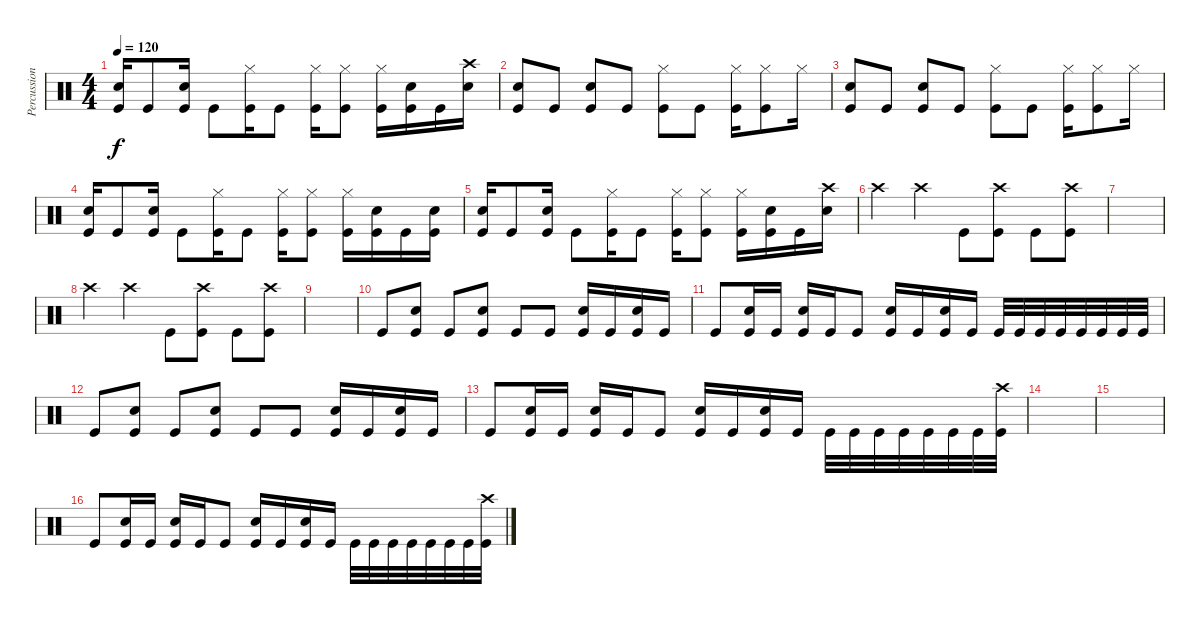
\track ("Percussion" "Percussion") {instrument percussion}
\staff {score}
\articulation defaults
\ts (4 4)
\tempo 120
\clef neutral
\ks c
("Kick (hit)" "Snare (hit) 2").16{dy f} "Kick (hit)".8 ("Kick (hit)" "Snare (hit) 2").16 "Kick (hit)".8 ("Kick (hit)" "Hi-Hat (closed)").16 "Kick (hit)".8 ("Kick (hit)" "Hi-Hat (closed)").16 ("Kick (hit)" "Hi-Hat (closed)").8 ("Kick (hit)" "Hi-Hat (closed)").16 ("Kick (hit)" "Snare (hit) 2").16 "Kick (hit)".16 ("Crash high (hit)" "Snare (hit) 2").16 |
("Kick (hit)" "Snare (hit) 2").8 "Kick (hit)".8 ("Kick (hit)" "Snare (hit) 2").8 "Kick (hit)".8 ("Kick (hit)" "Hi-Hat (closed)").8 "Kick (hit)".8 ("Kick (hit)" "Hi-Hat (closed)").16 ("Kick (hit)" "Hi-Hat (closed)").8 "Hi-Hat (closed)".16 |
("Kick (hit)" "Snare (hit) 2").8 "Kick (hit)".8 ("Kick (hit)" "Snare (hit) 2").8 "Kick (hit)".8 ("Kick (hit)" "Hi-Hat (closed)").8 "Kick (hit)".8 ("Kick (hit)" "Hi-Hat (closed)").16 ("Kick (hit)" "Hi-Hat (closed)").8 "Hi-Hat (closed)".16 |
("Kick (hit)" "Snare (hit) 2").16 "Kick (hit)".8 ("Kick (hit)" "Snare (hit) 2").16 "Kick (hit)".8 ("Kick (hit)" "Hi-Hat (closed)").16 "Kick (hit)".8 ("Kick (hit)" "Hi-Hat (closed)").16 ("Kick (hit)" "Hi-Hat (closed)").8 ("Kick (hit)" "Hi-Hat (closed)").16 ("Kick (hit)" "Snare (hit) 2").16 "Kick (hit)".16 ("Kick (hit)" "Snare (hit) 2").16 |
("Kick (hit)" "Snare (hit) 2").16 "Kick (hit)".8 ("Kick (hit)" "Snare (hit) 2").16 "Kick (hit)".8 ("Kick (hit)" "Hi-Hat (closed)").16 "Kick (hit)".8 ("Kick (hit)" "Hi-Hat (closed)").16 ("Kick (hit)" "Hi-Hat (closed)").8 ("Kick (hit)" "Hi-Hat (closed)").16 ("Kick (hit)" "Snare (hit) 2").16 "Kick (hit)".16 ("Crash high (hit)" "Snare (hit) 2").16 |
"Crash high (hit)".4 "Crash high (hit)".4 "Kick (hit)".8 ("Kick (hit)" "Crash high (hit)").8 "Kick (hit)".8 ("Kick (hit)" "Crash high (hit)").8 |
|
"Crash high (hit)".4 "Crash high (hit)".4 "Kick (hit)".8 ("Kick (hit)" "Crash high (hit)").8 "Kick (hit)".8 ("Kick (hit)" "Crash high (hit)").8 |
|
"Kick (hit)".8 ("Snare (hit) 2" "Kick (hit)").8 "Kick (hit)".8 ("Snare (hit) 2" "Kick (hit)").8 "Kick (hit)".8 "Kick (hit)".8 ("Snare (hit) 2" "Kick (hit)").16 "Kick (hit)".16 ("Snare (hit) 2" "Kick (hit)").16 "Kick (hit)".16 |
"Kick (hit)".8 ("Snare (hit) 2" "Kick (hit)").16 "Kick (hit)".16 ("Snare (hit) 2" "Kick (hit)").16 "Kick (hit)".16 "Kick (hit)".8 ("Snare (hit) 2" "Kick (hit)").16 "Kick (hit)".16 ("Snare (hit) 2" "Kick (hit)").16 "Kick (hit)".16 "Kick (hit)".32 "Kick (hit)".32 "Kick (hit)".32 "Kick (hit)".32 "Kick (hit)".32 "Kick (hit)".32 "Kick (hit)".32 "Kick (hit)".32 |
"Kick (hit)".8 ("Snare (hit) 2" "Kick (hit)").8 "Kick (hit)".8 ("Snare (hit) 2" "Kick (hit)").8 "Kick (hit)".8 "Kick (hit)".8 ("Snare (hit) 2" "Kick (hit)").16 "Kick (hit)".16 ("Snare (hit) 2" "Kick (hit)").16 "Kick (hit)".16 |
"Kick (hit)".8 ("Snare (hit) 2" "Kick (hit)").16 "Kick (hit)".16 ("Snare (hit) 2" "Kick (hit)").16 "Kick (hit)".16 "Kick (hit)".8 ("Snare (hit) 2" "Kick (hit)").16 "Kick (hit)".16 ("Snare (hit) 2" "Kick (hit)").16 "Kick (hit)".16 "Kick (hit)".32 "Kick (hit)".32 "Kick (hit)".32 "Kick (hit)".32 "Kick (hit)".32 "Kick (hit)".32 "Kick (hit)".32 ("Crash high (hit)" "Kick (hit)").32 |
|
|
"Kick (hit)".8 ("Snare (hit) 2" "Kick (hit)").16 "Kick (hit)".16 ("Snare (hit) 2" "Kick (hit)").16 "Kick (hit)".16 "Kick (hit)".8 ("Snare (hit) 2" "Kick (hit)").16 "Kick (hit)".16 ("Snare (hit) 2" "Kick (hit)").16 "Kick (hit)".16 "Kick (hit)".32 "Kick (hit)".32 "Kick (hit)".32 "Kick (hit)".32 "Kick (hit)".32 "Kick (hit)".32 "Kick (hit)".32 ("Crash high (hit)" "Kick (hit)").32
